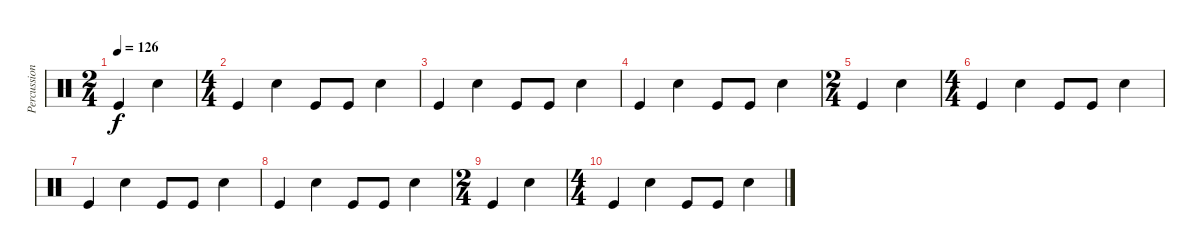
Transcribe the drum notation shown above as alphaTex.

\track ("Percussion" "Percussion") {instrument percussion}
\staff {score}
\articulation defaults
\ts (2 4)
\tempo 126
\clef neutral
\ks c "Kick (hit)".4{dy f} "Snare (hit) 2".4
|
\ts (4 4)
"Kick (hit)".4 "Snare (hit) 2".4 "Kick (hit)".8 "Kick (hit)".8 "Snare (hit) 2".4 |
"Kick (hit)".4 "Snare (hit) 2".4 "Kick (hit)".8 "Kick (hit)".8 "Snare (hit) 2".4 |
"Kick (hit)".4 "Snare (hit) 2".4 "Kick (hit)".8 "Kick (hit)".8 "Snare (hit) 2".4 |
\ts (2 4)
"Kick (hit)".4 "Snare (hit) 2".4 |
\ts (4 4)
"Kick (hit)".4 "Snare (hit) 2".4 "Kick (hit)".8 "Kick (hit)".8 "Snare (hit) 2".4 |
"Kick (hit)".4{volume 10} "Snare (hit) 2".4 "Kick (hit)".8 "Kick (hit)".8 "Snare (hit) 2".4 |
"Kick (hit)".4{volume 7} "Snare (hit) 2".4 "Kick (hit)".8 "Kick (hit)".8 "Snare (hit) 2".4 |
\ts (2 4)
"Kick (hit)".4{volume 4} "Snare (hit) 2".4 |
\ts (4 4)
"Kick (hit)".4{volume 2} "Snare (hit) 2".4 "Kick (hit)".8 "Kick (hit)".8 "Snare (hit) 2".4
